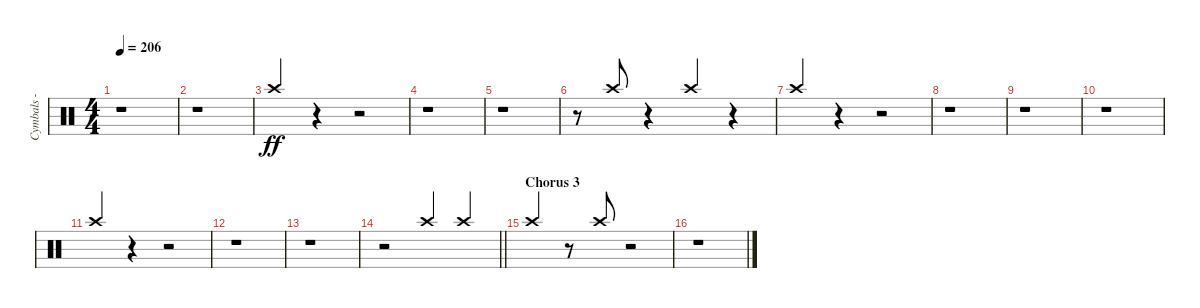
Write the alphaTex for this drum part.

\track ("Cymbals - crash" "Cymbals - ") {instrument percussion}
\staff {score}
\articulation defaults
\ts (4 4)
\tempo 206
\clef neutral
\ks c
r.1{dy ff} |
r.1 |
"Crash high (hit)".4{beam Up} r.4 r.2 |
r.1 |
r.1 |
r.8 "Crash high (hit)".8{beam Up} r.4 "Crash high (hit)".4{beam Up} r.4 |
"Crash high (hit)".4{beam Up} r.4 r.2 |
r.1 |
r.1 |
r.1 |
"Crash high (hit)".4{beam Up} r.4 r.2 |
r.1 |
r.1 |
\barLineRight lightlight
r.2 "Crash high (hit)".4{beam Up} "Crash high (hit)".4{beam Up} |
\section ("" "Chorus 3")
"Crash high (hit)".4{beam Up} r.8 "Crash high (hit)".8{beam Up} r.2 |
r.1
